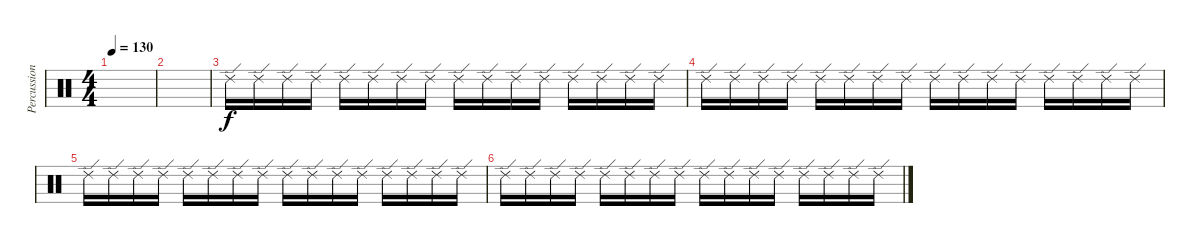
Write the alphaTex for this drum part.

\track ("Percussion" "Percussion") {instrument percussion}
\staff {score}
\articulation defaults
\ts (4 4)
\tempo 130
\clef neutral
\ks c
|
|
"Ride (edge) 2".16 "Ride (edge) 2".16 "Ride (edge) 2".16 "Ride (edge) 2".16 "Ride (edge) 2".16 "Ride (edge) 2".16 "Ride (edge) 2".16 "Ride (edge) 2".16 "Ride (edge) 2".16 "Ride (edge) 2".16 "Ride (edge) 2".16 "Ride (edge) 2".16 "Ride (edge) 2".16 "Ride (edge) 2".16 "Ride (edge) 2".16 "Ride (edge) 2".16 |
"Ride (edge) 2".16 "Ride (edge) 2".16 "Ride (edge) 2".16 "Ride (edge) 2".16 "Ride (edge) 2".16 "Ride (edge) 2".16 "Ride (edge) 2".16 "Ride (edge) 2".16 "Ride (edge) 2".16 "Ride (edge) 2".16 "Ride (edge) 2".16 "Ride (edge) 2".16 "Ride (edge) 2".16 "Ride (edge) 2".16 "Ride (edge) 2".16 "Ride (edge) 2".16 |
"Ride (edge) 2".16 "Ride (edge) 2".16 "Ride (edge) 2".16 "Ride (edge) 2".16 "Ride (edge) 2".16 "Ride (edge) 2".16 "Ride (edge) 2".16 "Ride (edge) 2".16 "Ride (edge) 2".16 "Ride (edge) 2".16 "Ride (edge) 2".16 "Ride (edge) 2".16 "Ride (edge) 2".16 "Ride (edge) 2".16 "Ride (edge) 2".16 "Ride (edge) 2".16 |
"Ride (edge) 2".16 "Ride (edge) 2".16 "Ride (edge) 2".16 "Ride (edge) 2".16 "Ride (edge) 2".16 "Ride (edge) 2".16 "Ride (edge) 2".16 "Ride (edge) 2".16 "Ride (edge) 2".16 "Ride (edge) 2".16 "Ride (edge) 2".16 "Ride (edge) 2".16 "Ride (edge) 2".16 "Ride (edge) 2".16 "Ride (edge) 2".16 "Ride (edge) 2".16
